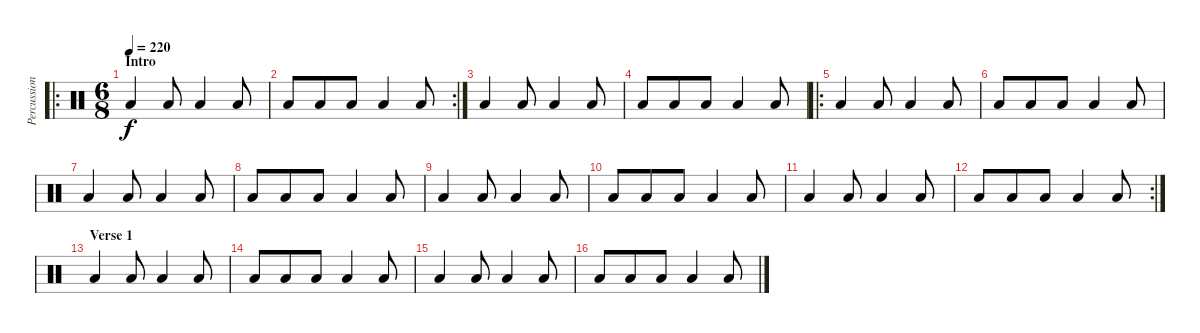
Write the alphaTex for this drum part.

\track ("Percussion" "Percussion") {instrument percussion}
\staff {score}
\articulation defaults
\ro
\ts (6 8)
\section ("" "Intro")
\tempo 220
\clef neutral
\ks c "Low Floor Tom (hit)".4{dy f} "Low Floor Tom (hit)".8 "Low Tom (hit)".4 "Low Tom (hit)".8
|
\rc 2 "Low Floor Tom (hit)".8 "Low Floor Tom (hit)".8 "Low Floor Tom (hit)".8 "Low Tom (hit)".4 "Low Tom (hit)".8
|
"Low Floor Tom (hit)".4 "Low Floor Tom (hit)".8 "Low Tom (hit)".4 "Low Tom (hit)".8 |
"Low Floor Tom (hit)".8 "Low Floor Tom (hit)".8 "Low Floor Tom (hit)".8 "Low Tom (hit)".4 "Low Tom (hit)".8 |
\ro "Low Floor Tom (hit)".4 "Low Floor Tom (hit)".8 "Low Tom (hit)".4 "Low Tom (hit)".8
|
"Low Floor Tom (hit)".8 "Low Floor Tom (hit)".8 "Low Floor Tom (hit)".8 "Low Tom (hit)".4 "Low Tom (hit)".8 |
"Low Floor Tom (hit)".4 "Low Floor Tom (hit)".8 "Low Tom (hit)".4 "Low Tom (hit)".8 |
"Low Floor Tom (hit)".8 "Low Floor Tom (hit)".8 "Low Floor Tom (hit)".8 "Low Tom (hit)".4 "Low Tom (hit)".8 |
"Low Floor Tom (hit)".4 "Low Floor Tom (hit)".8 "Low Tom (hit)".4 "Low Tom (hit)".8 |
"Low Floor Tom (hit)".8 "Low Floor Tom (hit)".8 "Low Floor Tom (hit)".8 "Low Tom (hit)".4 "Low Tom (hit)".8 |
"Low Floor Tom (hit)".4 "Low Floor Tom (hit)".8 "Low Tom (hit)".4 "Low Tom (hit)".8 |
\rc 2 "Low Floor Tom (hit)".8 "Low Floor Tom (hit)".8 "Low Floor Tom (hit)".8 "Low Tom (hit)".4 "Low Tom (hit)".8
|
\section ("" "Verse 1")
"Low Floor Tom (hit)".4 "Low Floor Tom (hit)".8 "Low Tom (hit)".4 "Low Tom (hit)".8 |
"Low Floor Tom (hit)".8 "Low Floor Tom (hit)".8 "Low Floor Tom (hit)".8 "Low Tom (hit)".4 "Low Tom (hit)".8 |
"Low Floor Tom (hit)".4 "Low Floor Tom (hit)".8 "Low Tom (hit)".4 "Low Tom (hit)".8 |
"Low Floor Tom (hit)".8 "Low Floor Tom (hit)".8 "Low Floor Tom (hit)".8 "Low Tom (hit)".4 "Low Tom (hit)".8
